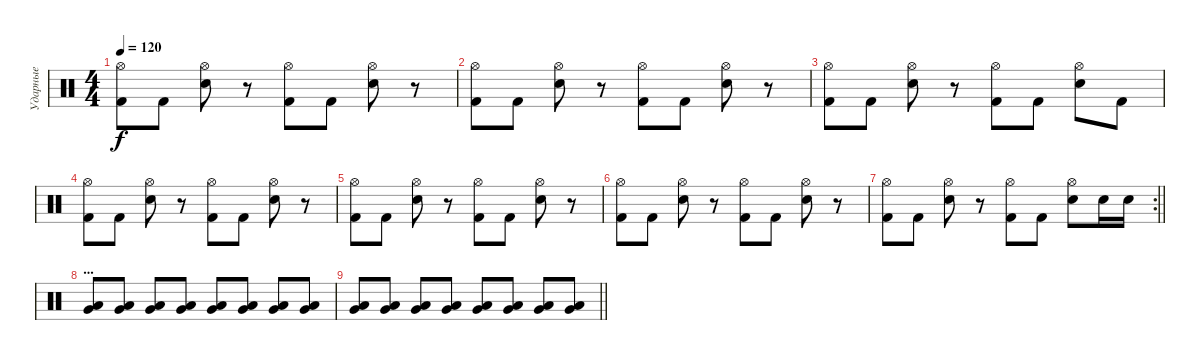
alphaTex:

\track ("Ударные" "Ударные") {instrument percussion}
\staff {score}
\articulation defaults
\ts (4 4)
\tempo 120
\clef neutral
\ks c
("Hi-Hat (open)" "Kick (hit) 2").8{dy f} "Kick (hit) 2".8 ("Hi-Hat (open)" "Electric Snare (hit)").8 r.8 ("Hi-Hat (open)" "Kick (hit) 2").8 "Kick (hit) 2".8 ("Hi-Hat (open)" "Electric Snare (hit)").8 r.8 |
("Hi-Hat (open)" "Kick (hit) 2").8 "Kick (hit) 2".8 ("Hi-Hat (open)" "Electric Snare (hit)").8 r.8 ("Hi-Hat (open)" "Kick (hit) 2").8 "Kick (hit) 2".8 ("Hi-Hat (open)" "Electric Snare (hit)").8 r.8 |
("Hi-Hat (open)" "Kick (hit) 2").8 "Kick (hit) 2".8 ("Hi-Hat (open)" "Electric Snare (hit)").8 r.8 ("Hi-Hat (open)" "Kick (hit) 2").8 "Kick (hit) 2".8 ("Hi-Hat (open)" "Electric Snare (hit)").8 "Kick (hit) 2".8 |
("Hi-Hat (open)" "Kick (hit) 2").8 "Kick (hit) 2".8 ("Hi-Hat (open)" "Electric Snare (hit)").8 r.8 ("Hi-Hat (open)" "Kick (hit) 2").8 "Kick (hit) 2".8 ("Hi-Hat (open)" "Electric Snare (hit)").8 r.8 |
("Hi-Hat (open)" "Kick (hit) 2").8 "Kick (hit) 2".8 ("Hi-Hat (open)" "Electric Snare (hit)").8 r.8 ("Hi-Hat (open)" "Kick (hit) 2").8 "Kick (hit) 2".8 ("Hi-Hat (open)" "Electric Snare (hit)").8 r.8 |
("Hi-Hat (open)" "Kick (hit) 2").8 "Kick (hit) 2".8 ("Hi-Hat (open)" "Electric Snare (hit)").8 r.8 ("Hi-Hat (open)" "Kick (hit) 2").8 "Kick (hit) 2".8 ("Hi-Hat (open)" "Electric Snare (hit)").8 r.8 |
\rc 2
\barLineRight lightlight
("Hi-Hat (open)" "Kick (hit) 2").8 "Kick (hit) 2".8 ("Hi-Hat (open)" "Electric Snare (hit)").8 r.8 ("Hi-Hat (open)" "Kick (hit) 2").8 "Kick (hit) 2".8 ("Hi-Hat (open)" "Electric Snare (hit)").8 "Electric Snare (hit)".16 "Electric Snare (hit)".16 |
\section ("" "...")
("Low Tom (hit)" "Very Low Tom (hit)").8 ("Low Tom (hit)" "Very Low Tom (hit)").8 ("Low Tom (hit)" "Very Low Tom (hit)").8 ("Low Tom (hit)" "Very Low Tom (hit)").8 ("Low Tom (hit)" "Very Low Tom (hit)").8 ("Low Tom (hit)" "Very Low Tom (hit)").8 ("Low Tom (hit)" "Very Low Tom (hit)").8 ("Low Tom (hit)" "Very Low Tom (hit)").8 |
\barLineRight lightlight
("Low Tom (hit)" "Very Low Tom (hit)").8 ("Low Tom (hit)" "Very Low Tom (hit)").8 ("Low Tom (hit)" "Very Low Tom (hit)").8 ("Low Tom (hit)" "Very Low Tom (hit)").8 ("Low Tom (hit)" "Very Low Tom (hit)").8 ("Low Tom (hit)" "Very Low Tom (hit)").8 ("Low Tom (hit)" "Very Low Tom (hit)").8 ("Low Tom (hit)" "Very Low Tom (hit)").8
